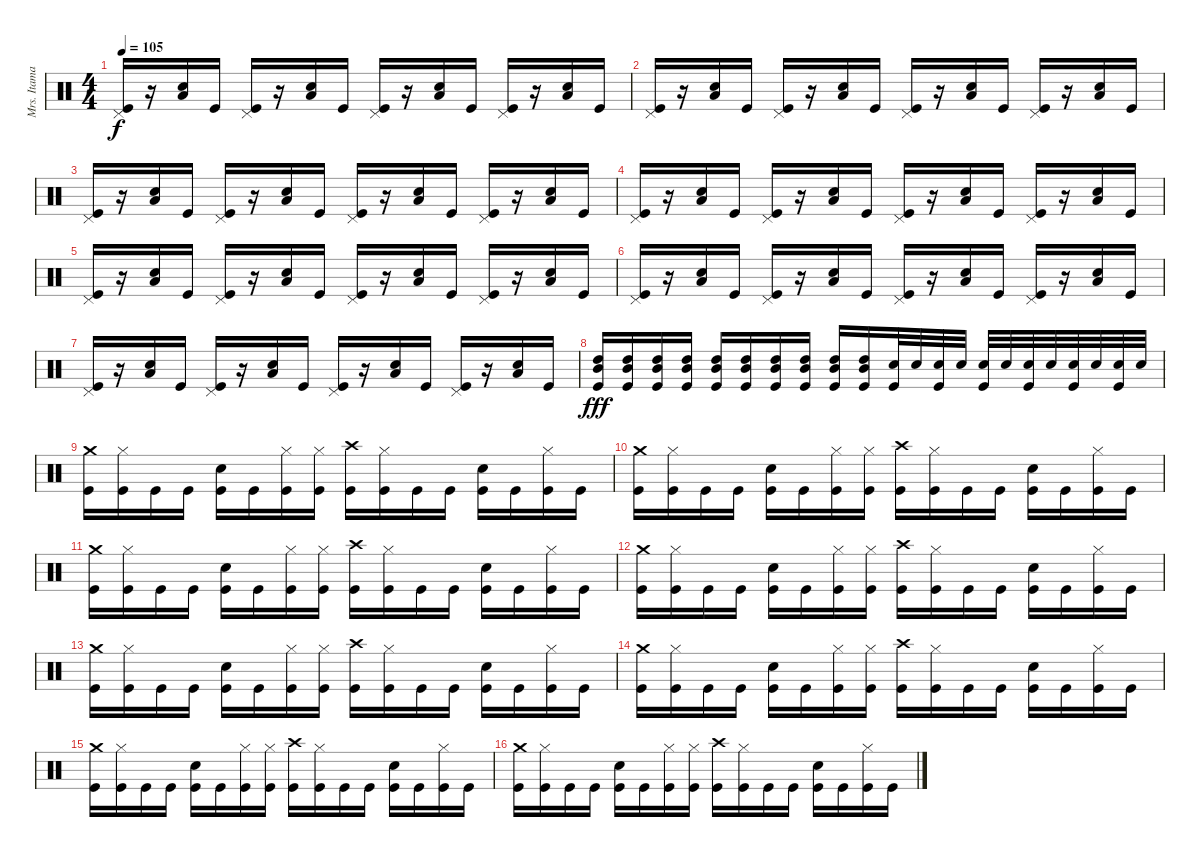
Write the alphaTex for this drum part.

\track ("Mrs. Itamar" "Mrs. Itama") {instrument percussion}
\staff {score}
\articulation defaults
\ts (4 4)
\tempo 105
\clef neutral
\ks c
("Kick (hit)" "Pedal Hi-Hat (hit)").16{dy f} r.16 ("Electric Snare (hit)" "Low Tom (hit)").16 "Kick (hit)".16 ("Kick (hit)" "Pedal Hi-Hat (hit)").16 r.16 ("Electric Snare (hit)" "Low Tom (hit)").16 "Kick (hit)".16 ("Kick (hit)" "Pedal Hi-Hat (hit)").16 r.16 ("Electric Snare (hit)" "Low Tom (hit)").16 "Kick (hit)".16 ("Kick (hit)" "Pedal Hi-Hat (hit)").16 r.16 ("Electric Snare (hit)" "Low Tom (hit)").16 "Kick (hit)".16 |
("Kick (hit)" "Pedal Hi-Hat (hit)").16 r.16 ("Electric Snare (hit)" "Low Tom (hit)").16 "Kick (hit)".16 ("Kick (hit)" "Pedal Hi-Hat (hit)").16 r.16 ("Electric Snare (hit)" "Low Tom (hit)").16 "Kick (hit)".16 ("Kick (hit)" "Pedal Hi-Hat (hit)").16 r.16 ("Electric Snare (hit)" "Low Tom (hit)").16 "Kick (hit)".16 ("Kick (hit)" "Pedal Hi-Hat (hit)").16 r.16 ("Electric Snare (hit)" "Low Tom (hit)").16 "Kick (hit)".16 |
("Kick (hit)" "Pedal Hi-Hat (hit)").16 r.16 ("Electric Snare (hit)" "Low Tom (hit)").16 "Kick (hit)".16 ("Kick (hit)" "Pedal Hi-Hat (hit)").16 r.16 ("Electric Snare (hit)" "Low Tom (hit)").16 "Kick (hit)".16 ("Kick (hit)" "Pedal Hi-Hat (hit)").16 r.16 ("Electric Snare (hit)" "Low Tom (hit)").16 "Kick (hit)".16 ("Kick (hit)" "Pedal Hi-Hat (hit)").16 r.16 ("Electric Snare (hit)" "Low Tom (hit)").16 "Kick (hit)".16 |
("Kick (hit)" "Pedal Hi-Hat (hit)").16 r.16 ("Electric Snare (hit)" "Low Tom (hit)").16 "Kick (hit)".16 ("Kick (hit)" "Pedal Hi-Hat (hit)").16 r.16 ("Electric Snare (hit)" "Low Tom (hit)").16 "Kick (hit)".16 ("Kick (hit)" "Pedal Hi-Hat (hit)").16 r.16 ("Electric Snare (hit)" "Low Tom (hit)").16 "Kick (hit)".16 ("Kick (hit)" "Pedal Hi-Hat (hit)").16 r.16 ("Electric Snare (hit)" "Low Tom (hit)").16 "Kick (hit)".16 |
("Kick (hit)" "Pedal Hi-Hat (hit)").16 r.16 ("Electric Snare (hit)" "Low Tom (hit)").16 "Kick (hit)".16 ("Kick (hit)" "Pedal Hi-Hat (hit)").16 r.16 ("Electric Snare (hit)" "Low Tom (hit)").16 "Kick (hit)".16 ("Kick (hit)" "Pedal Hi-Hat (hit)").16 r.16 ("Electric Snare (hit)" "Low Tom (hit)").16 "Kick (hit)".16 ("Kick (hit)" "Pedal Hi-Hat (hit)").16 r.16 ("Electric Snare (hit)" "Low Tom (hit)").16 "Kick (hit)".16 |
("Kick (hit)" "Pedal Hi-Hat (hit)").16 r.16 ("Electric Snare (hit)" "Low Tom (hit)").16 "Kick (hit)".16 ("Kick (hit)" "Pedal Hi-Hat (hit)").16 r.16 ("Electric Snare (hit)" "Low Tom (hit)").16 "Kick (hit)".16 ("Kick (hit)" "Pedal Hi-Hat (hit)").16 r.16 ("Electric Snare (hit)" "Low Tom (hit)").16 "Kick (hit)".16 ("Kick (hit)" "Pedal Hi-Hat (hit)").16 r.16 ("Electric Snare (hit)" "Low Tom (hit)").16 "Kick (hit)".16 |
("Kick (hit)" "Pedal Hi-Hat (hit)").16 r.16 ("Electric Snare (hit)" "Low Tom (hit)").16 "Kick (hit)".16 ("Kick (hit)" "Pedal Hi-Hat (hit)").16 r.16 ("Electric Snare (hit)" "Low Tom (hit)").16 "Kick (hit)".16 ("Kick (hit)" "Pedal Hi-Hat (hit)").16 r.16 ("Electric Snare (hit)" "Low Tom (hit)").16 "Kick (hit)".16 ("Kick (hit)" "Pedal Hi-Hat (hit)").16 r.16 ("Electric Snare (hit)" "Low Tom (hit)").16 "Kick (hit)".16 |
("Mid Tom (hit)" "High Tom (hit)" "Kick (hit)").16{dy fff} ("Mid Tom (hit)" "High Tom (hit)" "Kick (hit)").16 ("Mid Tom (hit)" "High Tom (hit)" "Kick (hit)").16 ("Mid Tom (hit)" "High Tom (hit)" "Kick (hit)").16 ("Mid Tom (hit)" "High Tom (hit)" "Kick (hit)").16 ("Mid Tom (hit)" "High Tom (hit)" "Kick (hit)").16 ("Mid Tom (hit)" "High Tom (hit)" "Kick (hit)").16 ("Mid Tom (hit)" "High Tom (hit)" "Kick (hit)").16 ("Mid Tom (hit)" "High Tom (hit)" "Kick (hit)").16 ("Mid Tom (hit)" "High Tom (hit)" "Kick (hit)").16 ("Electric Snare (hit)" "Kick (hit)").32 "Electric Snare (hit)".32 ("Electric Snare (hit)" "Kick (hit)").32 "Electric Snare (hit)".32 ("Electric Snare (hit)" "Kick (hit)").32 "Electric Snare (hit)".32 ("Electric Snare (hit)" "Kick (hit)").32 "Electric Snare (hit)".32 ("Electric Snare (hit)" "Kick (hit)").32 "Electric Snare (hit)".32 ("Electric Snare (hit)" "Kick (hit)").32 "Electric Snare (hit)".32 |
("Crash medium (hit)" "Kick (hit)").16 ("Hi-Hat (closed)" "Kick (hit)").16 "Kick (hit)".16 "Kick (hit)".16 ("Electric Snare (hit)" "Kick (hit)").16 "Kick (hit)".16 ("Hi-Hat (closed)" "Kick (hit)").16 ("Hi-Hat (closed)" "Kick (hit)").16 ("Crash high (hit)" "Kick (hit)").16 ("Hi-Hat (closed)" "Kick (hit)").16 "Kick (hit)".16 "Kick (hit)".16 ("Electric Snare (hit)" "Kick (hit)").16 "Kick (hit)".16 ("Hi-Hat (closed)" "Kick (hit)").16 "Kick (hit)".16 |
("Crash medium (hit)" "Kick (hit)").16 ("Hi-Hat (closed)" "Kick (hit)").16 "Kick (hit)".16 "Kick (hit)".16 ("Electric Snare (hit)" "Kick (hit)").16 "Kick (hit)".16 ("Hi-Hat (closed)" "Kick (hit)").16 ("Hi-Hat (closed)" "Kick (hit)").16 ("Crash high (hit)" "Kick (hit)").16 ("Hi-Hat (closed)" "Kick (hit)").16 "Kick (hit)".16 "Kick (hit)".16 ("Electric Snare (hit)" "Kick (hit)").16 "Kick (hit)".16 ("Hi-Hat (closed)" "Kick (hit)").16 "Kick (hit)".16 |
("Crash medium (hit)" "Kick (hit)").16 ("Hi-Hat (closed)" "Kick (hit)").16 "Kick (hit)".16 "Kick (hit)".16 ("Electric Snare (hit)" "Kick (hit)").16 "Kick (hit)".16 ("Hi-Hat (closed)" "Kick (hit)").16 ("Hi-Hat (closed)" "Kick (hit)").16 ("Crash high (hit)" "Kick (hit)").16 ("Hi-Hat (closed)" "Kick (hit)").16 "Kick (hit)".16 "Kick (hit)".16 ("Electric Snare (hit)" "Kick (hit)").16 "Kick (hit)".16 ("Hi-Hat (closed)" "Kick (hit)").16 "Kick (hit)".16 |
("Crash medium (hit)" "Kick (hit)").16 ("Hi-Hat (closed)" "Kick (hit)").16 "Kick (hit)".16 "Kick (hit)".16 ("Electric Snare (hit)" "Kick (hit)").16 "Kick (hit)".16 ("Hi-Hat (closed)" "Kick (hit)").16 ("Hi-Hat (closed)" "Kick (hit)").16 ("Crash high (hit)" "Kick (hit)").16 ("Hi-Hat (closed)" "Kick (hit)").16 "Kick (hit)".16 "Kick (hit)".16 ("Electric Snare (hit)" "Kick (hit)").16 "Kick (hit)".16 ("Hi-Hat (closed)" "Kick (hit)").16 "Kick (hit)".16 |
("Crash medium (hit)" "Kick (hit)").16 ("Hi-Hat (closed)" "Kick (hit)").16 "Kick (hit)".16 "Kick (hit)".16 ("Electric Snare (hit)" "Kick (hit)").16 "Kick (hit)".16 ("Hi-Hat (closed)" "Kick (hit)").16 ("Hi-Hat (closed)" "Kick (hit)").16 ("Crash high (hit)" "Kick (hit)").16 ("Hi-Hat (closed)" "Kick (hit)").16 "Kick (hit)".16 "Kick (hit)".16 ("Electric Snare (hit)" "Kick (hit)").16 "Kick (hit)".16 ("Hi-Hat (closed)" "Kick (hit)").16 "Kick (hit)".16 |
("Crash medium (hit)" "Kick (hit)").16 ("Hi-Hat (closed)" "Kick (hit)").16 "Kick (hit)".16 "Kick (hit)".16 ("Electric Snare (hit)" "Kick (hit)").16 "Kick (hit)".16 ("Hi-Hat (closed)" "Kick (hit)").16 ("Hi-Hat (closed)" "Kick (hit)").16 ("Crash high (hit)" "Kick (hit)").16 ("Hi-Hat (closed)" "Kick (hit)").16 "Kick (hit)".16 "Kick (hit)".16 ("Electric Snare (hit)" "Kick (hit)").16 "Kick (hit)".16 ("Hi-Hat (closed)" "Kick (hit)").16 "Kick (hit)".16 |
("Crash medium (hit)" "Kick (hit)").16 ("Hi-Hat (closed)" "Kick (hit)").16 "Kick (hit)".16 "Kick (hit)".16 ("Electric Snare (hit)" "Kick (hit)").16 "Kick (hit)".16 ("Hi-Hat (closed)" "Kick (hit)").16 ("Hi-Hat (closed)" "Kick (hit)").16 ("Crash high (hit)" "Kick (hit)").16 ("Hi-Hat (closed)" "Kick (hit)").16 "Kick (hit)".16 "Kick (hit)".16 ("Electric Snare (hit)" "Kick (hit)").16 "Kick (hit)".16 ("Hi-Hat (closed)" "Kick (hit)").16 "Kick (hit)".16 |
("Crash medium (hit)" "Kick (hit)").16 ("Hi-Hat (closed)" "Kick (hit)").16 "Kick (hit)".16 "Kick (hit)".16 ("Electric Snare (hit)" "Kick (hit)").16 "Kick (hit)".16 ("Hi-Hat (closed)" "Kick (hit)").16 ("Hi-Hat (closed)" "Kick (hit)").16 ("Crash high (hit)" "Kick (hit)").16 ("Hi-Hat (closed)" "Kick (hit)").16 "Kick (hit)".16 "Kick (hit)".16 ("Electric Snare (hit)" "Kick (hit)").16 "Kick (hit)".16 ("Hi-Hat (closed)" "Kick (hit)").16 "Kick (hit)".16
